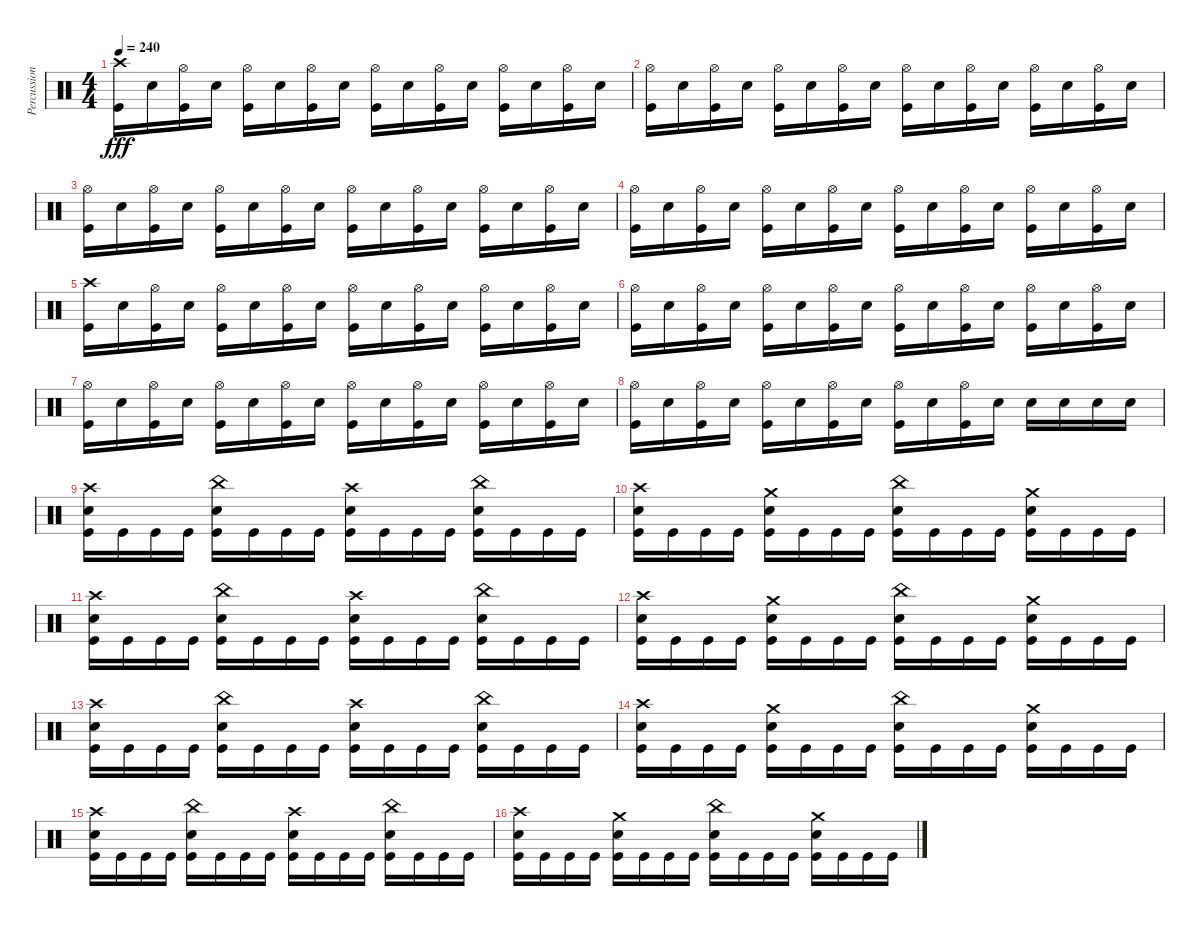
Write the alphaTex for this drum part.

\track ("Percussion" "Percussion") {instrument percussion}
\staff {score}
\articulation defaults
\ts (4 4)
\tempo 240
\clef neutral
\ks c
("Crash high (hit)" "Kick (hit)").16{dy fff} "Snare (hit) 2".16 ("Hi-Hat (open)" "Kick (hit)").16 "Snare (hit) 2".16 ("Hi-Hat (open)" "Kick (hit)").16 "Snare (hit) 2".16 ("Hi-Hat (open)" "Kick (hit)").16 "Snare (hit) 2".16 ("Hi-Hat (open)" "Kick (hit)").16 "Snare (hit) 2".16 ("Hi-Hat (open)" "Kick (hit)").16 "Snare (hit) 2".16 ("Hi-Hat (open)" "Kick (hit)").16 "Snare (hit) 2".16 ("Hi-Hat (open)" "Kick (hit)").16 "Snare (hit) 2".16 |
("Hi-Hat (open)" "Kick (hit)").16 "Snare (hit) 2".16 ("Hi-Hat (open)" "Kick (hit)").16 "Snare (hit) 2".16 ("Hi-Hat (open)" "Kick (hit)").16 "Snare (hit) 2".16 ("Hi-Hat (open)" "Kick (hit)").16 "Snare (hit) 2".16 ("Hi-Hat (open)" "Kick (hit)").16 "Snare (hit) 2".16 ("Hi-Hat (open)" "Kick (hit)").16 "Snare (hit) 2".16 ("Hi-Hat (open)" "Kick (hit)").16 "Snare (hit) 2".16 ("Hi-Hat (open)" "Kick (hit)").16 "Snare (hit) 2".16 |
("Hi-Hat (open)" "Kick (hit)").16 "Snare (hit) 2".16 ("Hi-Hat (open)" "Kick (hit)").16 "Snare (hit) 2".16 ("Hi-Hat (open)" "Kick (hit)").16 "Snare (hit) 2".16 ("Hi-Hat (open)" "Kick (hit)").16 "Snare (hit) 2".16 ("Hi-Hat (open)" "Kick (hit)").16 "Snare (hit) 2".16 ("Hi-Hat (open)" "Kick (hit)").16 "Snare (hit) 2".16 ("Hi-Hat (open)" "Kick (hit)").16 "Snare (hit) 2".16 ("Hi-Hat (open)" "Kick (hit)").16 "Snare (hit) 2".16 |
("Hi-Hat (open)" "Kick (hit)").16 "Snare (hit) 2".16 ("Hi-Hat (open)" "Kick (hit)").16 "Snare (hit) 2".16 ("Hi-Hat (open)" "Kick (hit)").16 "Snare (hit) 2".16 ("Hi-Hat (open)" "Kick (hit)").16 "Snare (hit) 2".16 ("Hi-Hat (open)" "Kick (hit)").16 "Snare (hit) 2".16 ("Hi-Hat (open)" "Kick (hit)").16 "Snare (hit) 2".16 ("Hi-Hat (open)" "Kick (hit)").16 "Snare (hit) 2".16 ("Hi-Hat (open)" "Kick (hit)").16 "Snare (hit) 2".16 |
("Crash high (hit)" "Kick (hit)").16 "Snare (hit) 2".16 ("Hi-Hat (open)" "Kick (hit)").16 "Snare (hit) 2".16 ("Hi-Hat (open)" "Kick (hit)").16 "Snare (hit) 2".16 ("Hi-Hat (open)" "Kick (hit)").16 "Snare (hit) 2".16 ("Hi-Hat (open)" "Kick (hit)").16 "Snare (hit) 2".16 ("Hi-Hat (open)" "Kick (hit)").16 "Snare (hit) 2".16 ("Hi-Hat (open)" "Kick (hit)").16 "Snare (hit) 2".16 ("Hi-Hat (open)" "Kick (hit)").16 "Snare (hit) 2".16 |
("Hi-Hat (open)" "Kick (hit)").16 "Snare (hit) 2".16 ("Hi-Hat (open)" "Kick (hit)").16 "Snare (hit) 2".16 ("Hi-Hat (open)" "Kick (hit)").16 "Snare (hit) 2".16 ("Hi-Hat (open)" "Kick (hit)").16 "Snare (hit) 2".16 ("Hi-Hat (open)" "Kick (hit)").16 "Snare (hit) 2".16 ("Hi-Hat (open)" "Kick (hit)").16 "Snare (hit) 2".16 ("Hi-Hat (open)" "Kick (hit)").16 "Snare (hit) 2".16 ("Hi-Hat (open)" "Kick (hit)").16 "Snare (hit) 2".16 |
("Hi-Hat (open)" "Kick (hit)").16 "Snare (hit) 2".16 ("Hi-Hat (open)" "Kick (hit)").16 "Snare (hit) 2".16 ("Hi-Hat (open)" "Kick (hit)").16 "Snare (hit) 2".16 ("Hi-Hat (open)" "Kick (hit)").16 "Snare (hit) 2".16 ("Hi-Hat (open)" "Kick (hit)").16 "Snare (hit) 2".16 ("Hi-Hat (open)" "Kick (hit)").16 "Snare (hit) 2".16 ("Hi-Hat (open)" "Kick (hit)").16 "Snare (hit) 2".16 ("Hi-Hat (open)" "Kick (hit)").16 "Snare (hit) 2".16 |
("Hi-Hat (open)" "Kick (hit)").16 "Snare (hit) 2".16 ("Hi-Hat (open)" "Kick (hit)").16 "Snare (hit) 2".16 ("Hi-Hat (open)" "Kick (hit)").16 "Snare (hit) 2".16 ("Hi-Hat (open)" "Kick (hit)").16 "Snare (hit) 2".16 ("Hi-Hat (open)" "Kick (hit)").16 "Snare (hit) 2".16 ("Hi-Hat (open)" "Kick (hit)").16 "Snare (hit) 2".16 "Snare (hit) 2".16 "Snare (hit) 2".16 "Snare (hit) 2".16 "Snare (hit) 2".16 |
("Kick (hit)" "Crash high (hit)" "Snare (hit) 2").16 "Kick (hit)".16 "Kick (hit)".16 "Kick (hit)".16 ("Kick (hit)" "China (hit)" "Snare (hit) 2").16 "Kick (hit)".16 "Kick (hit)".16 "Kick (hit)".16 ("Kick (hit)" "Crash high (hit)" "Snare (hit) 2").16 "Kick (hit)".16 "Kick (hit)".16 "Kick (hit)".16 ("Kick (hit)" "China (hit)" "Snare (hit) 2").16 "Kick (hit)".16 "Kick (hit)".16 "Kick (hit)".16 |
("Kick (hit)" "Crash high (hit)" "Snare (hit) 2").16 "Kick (hit)".16 "Kick (hit)".16 "Kick (hit)".16 ("Kick (hit)" "Crash medium (hit)" "Snare (hit) 2").16 "Kick (hit)".16 "Kick (hit)".16 "Kick (hit)".16 ("Kick (hit)" "China (hit)" "Snare (hit) 2").16 "Kick (hit)".16 "Kick (hit)".16 "Kick (hit)".16 ("Kick (hit)" "Crash medium (hit)" "Snare (hit) 2").16 "Kick (hit)".16 "Kick (hit)".16 "Kick (hit)".16 |
("Kick (hit)" "Crash high (hit)" "Snare (hit) 2").16 "Kick (hit)".16 "Kick (hit)".16 "Kick (hit)".16 ("Kick (hit)" "China (hit)" "Snare (hit) 2").16 "Kick (hit)".16 "Kick (hit)".16 "Kick (hit)".16 ("Kick (hit)" "Crash high (hit)" "Snare (hit) 2").16 "Kick (hit)".16 "Kick (hit)".16 "Kick (hit)".16 ("Kick (hit)" "China (hit)" "Snare (hit) 2").16 "Kick (hit)".16 "Kick (hit)".16 "Kick (hit)".16 |
("Kick (hit)" "Crash high (hit)" "Snare (hit) 2").16 "Kick (hit)".16 "Kick (hit)".16 "Kick (hit)".16 ("Kick (hit)" "Crash medium (hit)" "Snare (hit) 2").16 "Kick (hit)".16 "Kick (hit)".16 "Kick (hit)".16 ("Kick (hit)" "China (hit)" "Snare (hit) 2").16 "Kick (hit)".16 "Kick (hit)".16 "Kick (hit)".16 ("Kick (hit)" "Crash medium (hit)" "Snare (hit) 2").16 "Kick (hit)".16 "Kick (hit)".16 "Kick (hit)".16 |
("Kick (hit)" "Crash high (hit)" "Snare (hit) 2").16 "Kick (hit)".16 "Kick (hit)".16 "Kick (hit)".16 ("Kick (hit)" "China (hit)" "Snare (hit) 2").16 "Kick (hit)".16 "Kick (hit)".16 "Kick (hit)".16 ("Kick (hit)" "Crash high (hit)" "Snare (hit) 2").16 "Kick (hit)".16 "Kick (hit)".16 "Kick (hit)".16 ("Kick (hit)" "China (hit)" "Snare (hit) 2").16 "Kick (hit)".16 "Kick (hit)".16 "Kick (hit)".16 |
("Kick (hit)" "Crash high (hit)" "Snare (hit) 2").16 "Kick (hit)".16 "Kick (hit)".16 "Kick (hit)".16 ("Kick (hit)" "Crash medium (hit)" "Snare (hit) 2").16 "Kick (hit)".16 "Kick (hit)".16 "Kick (hit)".16 ("Kick (hit)" "China (hit)" "Snare (hit) 2").16 "Kick (hit)".16 "Kick (hit)".16 "Kick (hit)".16 ("Kick (hit)" "Crash medium (hit)" "Snare (hit) 2").16 "Kick (hit)".16 "Kick (hit)".16 "Kick (hit)".16 |
("Kick (hit)" "Crash high (hit)" "Snare (hit) 2").16 "Kick (hit)".16 "Kick (hit)".16 "Kick (hit)".16 ("Kick (hit)" "China (hit)" "Snare (hit) 2").16 "Kick (hit)".16 "Kick (hit)".16 "Kick (hit)".16 ("Kick (hit)" "Crash high (hit)" "Snare (hit) 2").16 "Kick (hit)".16 "Kick (hit)".16 "Kick (hit)".16 ("Kick (hit)" "China (hit)" "Snare (hit) 2").16 "Kick (hit)".16 "Kick (hit)".16 "Kick (hit)".16 |
("Kick (hit)" "Crash high (hit)" "Snare (hit) 2").16 "Kick (hit)".16 "Kick (hit)".16 "Kick (hit)".16 ("Kick (hit)" "Crash medium (hit)" "Snare (hit) 2").16 "Kick (hit)".16 "Kick (hit)".16 "Kick (hit)".16 ("Kick (hit)" "China (hit)" "Snare (hit) 2").16 "Kick (hit)".16 "Kick (hit)".16 "Kick (hit)".16 ("Kick (hit)" "Crash medium (hit)" "Snare (hit) 2").16 "Kick (hit)".16 "Kick (hit)".16 "Kick (hit)".16
